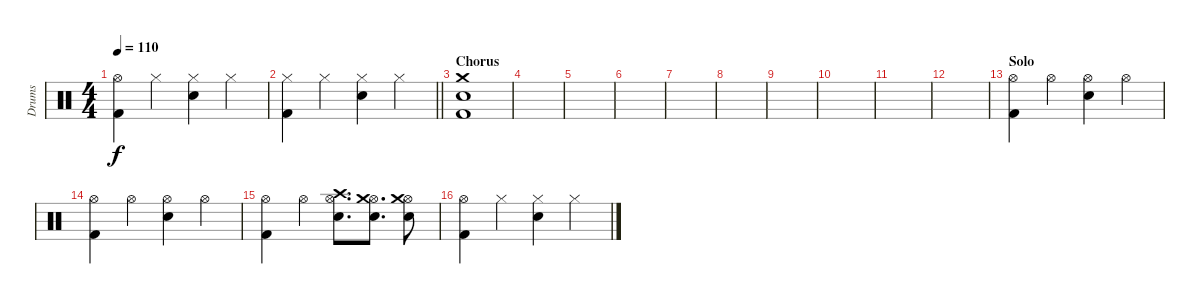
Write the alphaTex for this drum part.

\track ("Drums" "Drums") {instrument percussion}
\staff {score}
\articulation defaults
\ts (4 4)
\tempo 110
\clef neutral
\ks c
("Kick (hit) 2" "Hi-Hat (open)").4{dy f} "Hi-Hat (closed)".4 ("Electric Snare (hit)" "Hi-Hat (closed)").4 "Hi-Hat (closed)".4 |
\barLineRight lightlight
("Kick (hit) 2" "Hi-Hat (closed)").4 "Hi-Hat (closed)".4 ("Electric Snare (hit)" "Hi-Hat (closed)").4 "Hi-Hat (closed)".4 |
\section ("" "Chorus")
("Kick (hit) 2" "Electric Snare (hit)" "Crash medium (hit)").1 |
|
|
|
|
|
|
|
|
|
\section ("" "Solo")
("Kick (hit) 2" "Hi-Hat (open)").4 "Hi-Hat (open)".4 ("Electric Snare (hit)" "Hi-Hat (open)").4 "Hi-Hat (open)".4 |
("Kick (hit) 2" "Hi-Hat (open)").4 "Hi-Hat (open)".4 ("Electric Snare (hit)" "Hi-Hat (open)").4 "Hi-Hat (open)".4 |
("Kick (hit) 2" "Hi-Hat (open)").4 "Hi-Hat (open)".4 ("Electric Snare (hit)" "Hi-Hat (open)" "Crash high (hit)").8{d} ("Electric Snare (hit)" "Hi-Hat (open)" "Crash medium (hit)").8{d} ("Electric Snare (hit)" "Hi-Hat (open)" "Crash medium (hit)").8 |
("Kick (hit) 2" "Hi-Hat (open)").4 "Hi-Hat (closed)".4 ("Electric Snare (hit)" "Hi-Hat (closed)").4 "Hi-Hat (closed)".4
